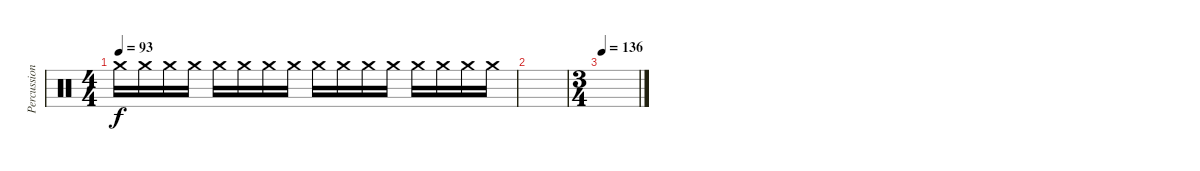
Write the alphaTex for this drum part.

\track ("Percussion" "Percussion") {instrument percussion}
\staff {score}
\articulation defaults
\ts (4 4)
\tempo 93
\clef neutral
\ks c "Crash medium (hit)".16{dy f} "Crash medium (hit)".16 "Crash medium (hit)".16 "Crash medium (hit)".16 "Crash medium (hit)".16 "Crash medium (hit)".16 "Crash medium (hit)".16 "Crash medium (hit)".16 "Crash medium (hit)".16 "Crash medium (hit)".16 "Crash medium (hit)".16 "Crash medium (hit)".16 "Crash medium (hit)".16 "Crash medium (hit)".16 "Crash medium (hit)".16 "Crash medium (hit)".16
|
|
\ts (3 4)
\tempo 136
